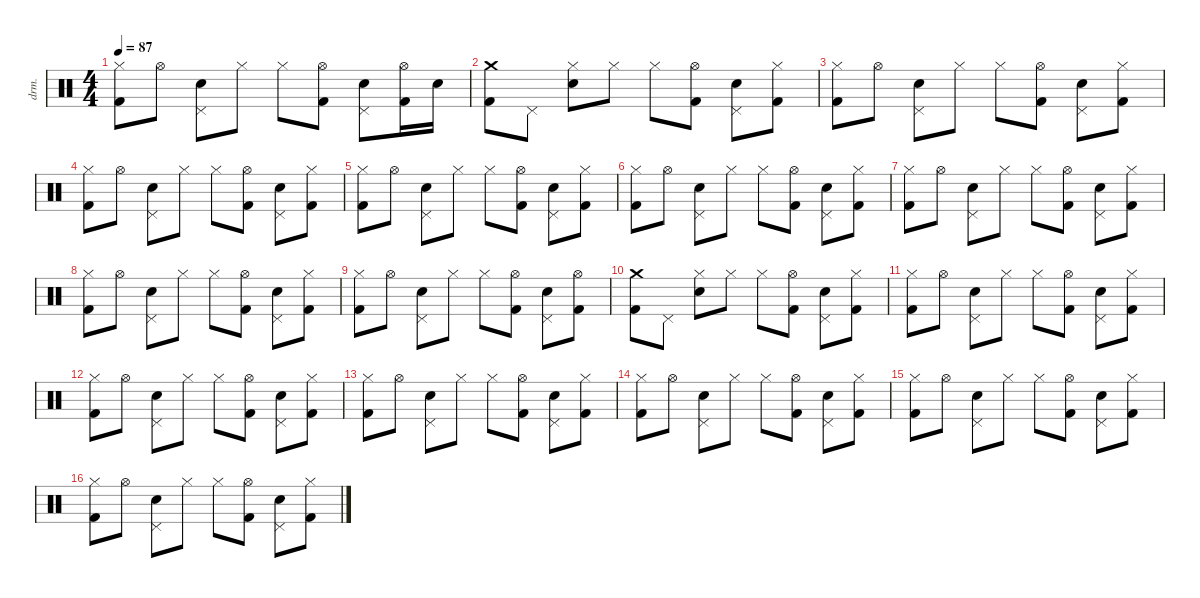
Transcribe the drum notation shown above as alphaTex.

\defaultSystemsLayout 4
\hideDynamics
\bracketExtendMode nobrackets
\otherSystemsTrackNameOrientation horizontal
\track ("Drums" "drm.") {instrument percussion}
\staff {score}
\articulation defaults
\ts (4 4)
\tempo 87
\clef neutral
\ks c
("Hi-Hat (closed)" "Kick (hit) 2").8{dy f} "Hi-Hat (open)".8 ("Pedal Hi-Hat (hit)" "Snare (hit) 2").8 "Hi-Hat (closed)".8 "Hi-Hat (closed)".8 ("Hi-Hat (open)" "Kick (hit) 2").8 ("Pedal Hi-Hat (hit)" "Snare (hit) 2").8 ("Hi-Hat (open)" "Kick (hit) 2").16 "Snare (hit) 2".16 |
("Crash medium (hit)" "Kick (hit) 2").8 "Pedal Hi-Hat (hit)".8 ("Hi-Hat (closed)" "Snare (hit) 2").8 "Hi-Hat (closed)".8 "Hi-Hat (closed)".8 ("Hi-Hat (open)" "Kick (hit) 2").8 ("Pedal Hi-Hat (hit)" "Snare (hit) 2").8 ("Hi-Hat (closed)" "Kick (hit) 2").8 |
("Hi-Hat (closed)" "Kick (hit) 2").8 "Hi-Hat (open)".8 ("Pedal Hi-Hat (hit)" "Snare (hit) 2").8 "Hi-Hat (closed)".8 "Hi-Hat (closed)".8 ("Hi-Hat (open)" "Kick (hit) 2").8 ("Pedal Hi-Hat (hit)" "Snare (hit) 2").8 ("Hi-Hat (closed)" "Kick (hit) 2").8 |
("Hi-Hat (closed)" "Kick (hit) 2").8 "Hi-Hat (open)".8 ("Pedal Hi-Hat (hit)" "Snare (hit) 2").8 "Hi-Hat (closed)".8 "Hi-Hat (closed)".8 ("Hi-Hat (open)" "Kick (hit) 2").8 ("Pedal Hi-Hat (hit)" "Snare (hit) 2").8 ("Hi-Hat (closed)" "Kick (hit) 2").8 |
("Hi-Hat (closed)" "Kick (hit) 2").8 "Hi-Hat (open)".8 ("Pedal Hi-Hat (hit)" "Snare (hit) 2").8 "Hi-Hat (closed)".8 "Hi-Hat (closed)".8 ("Hi-Hat (open)" "Kick (hit) 2").8 ("Pedal Hi-Hat (hit)" "Snare (hit) 2").8 ("Hi-Hat (closed)" "Kick (hit) 2").8 |
("Hi-Hat (closed)" "Kick (hit) 2").8 "Hi-Hat (open)".8 ("Pedal Hi-Hat (hit)" "Snare (hit) 2").8 "Hi-Hat (closed)".8 "Hi-Hat (closed)".8 ("Hi-Hat (open)" "Kick (hit) 2").8 ("Pedal Hi-Hat (hit)" "Snare (hit) 2").8 ("Hi-Hat (closed)" "Kick (hit) 2").8 |
("Hi-Hat (closed)" "Kick (hit) 2").8 "Hi-Hat (open)".8 ("Pedal Hi-Hat (hit)" "Snare (hit) 2").8 "Hi-Hat (closed)".8 "Hi-Hat (closed)".8 ("Hi-Hat (open)" "Kick (hit) 2").8 ("Pedal Hi-Hat (hit)" "Snare (hit) 2").8 ("Hi-Hat (closed)" "Kick (hit) 2").8 |
("Hi-Hat (closed)" "Kick (hit) 2").8 "Hi-Hat (open)".8 ("Pedal Hi-Hat (hit)" "Snare (hit) 2").8 "Hi-Hat (closed)".8 "Hi-Hat (closed)".8 ("Hi-Hat (open)" "Kick (hit) 2").8 ("Pedal Hi-Hat (hit)" "Snare (hit) 2").8 ("Hi-Hat (closed)" "Kick (hit) 2").8 |
("Hi-Hat (closed)" "Kick (hit) 2").8 "Hi-Hat (open)".8 ("Pedal Hi-Hat (hit)" "Snare (hit) 2").8 "Hi-Hat (closed)".8 "Hi-Hat (closed)".8 ("Hi-Hat (open)" "Kick (hit) 2").8 ("Pedal Hi-Hat (hit)" "Snare (hit) 2").8 ("Hi-Hat (open)" "Kick (hit) 2").8 |
("Crash medium (hit)" "Kick (hit) 2").8 "Pedal Hi-Hat (hit)".8 ("Hi-Hat (closed)" "Snare (hit) 2").8 "Hi-Hat (closed)".8 "Hi-Hat (closed)".8 ("Hi-Hat (open)" "Kick (hit) 2").8 ("Pedal Hi-Hat (hit)" "Snare (hit) 2").8 ("Hi-Hat (closed)" "Kick (hit) 2").8 |
("Hi-Hat (closed)" "Kick (hit) 2").8 "Hi-Hat (open)".8 ("Pedal Hi-Hat (hit)" "Snare (hit) 2").8 "Hi-Hat (closed)".8 "Hi-Hat (closed)".8 ("Hi-Hat (open)" "Kick (hit) 2").8 ("Pedal Hi-Hat (hit)" "Snare (hit) 2").8 ("Hi-Hat (closed)" "Kick (hit) 2").8 |
("Hi-Hat (closed)" "Kick (hit) 2").8 "Hi-Hat (open)".8 ("Pedal Hi-Hat (hit)" "Snare (hit) 2").8 "Hi-Hat (closed)".8 "Hi-Hat (closed)".8 ("Hi-Hat (open)" "Kick (hit) 2").8 ("Pedal Hi-Hat (hit)" "Snare (hit) 2").8 ("Hi-Hat (closed)" "Kick (hit) 2").8 |
("Hi-Hat (closed)" "Kick (hit) 2").8 "Hi-Hat (open)".8 ("Pedal Hi-Hat (hit)" "Snare (hit) 2").8 "Hi-Hat (closed)".8 "Hi-Hat (closed)".8 ("Hi-Hat (open)" "Kick (hit) 2").8 ("Pedal Hi-Hat (hit)" "Snare (hit) 2").8 ("Hi-Hat (closed)" "Kick (hit) 2").8 |
("Hi-Hat (closed)" "Kick (hit) 2").8 "Hi-Hat (open)".8 ("Pedal Hi-Hat (hit)" "Snare (hit) 2").8 "Hi-Hat (closed)".8 "Hi-Hat (closed)".8 ("Hi-Hat (open)" "Kick (hit) 2").8 ("Pedal Hi-Hat (hit)" "Snare (hit) 2").8 ("Hi-Hat (closed)" "Kick (hit) 2").8 |
("Hi-Hat (closed)" "Kick (hit) 2").8 "Hi-Hat (open)".8 ("Pedal Hi-Hat (hit)" "Snare (hit) 2").8 "Hi-Hat (closed)".8 "Hi-Hat (closed)".8 ("Hi-Hat (open)" "Kick (hit) 2").8 ("Pedal Hi-Hat (hit)" "Snare (hit) 2").8 ("Hi-Hat (closed)" "Kick (hit) 2").8 |
("Hi-Hat (closed)" "Kick (hit) 2").8 "Hi-Hat (open)".8 ("Pedal Hi-Hat (hit)" "Snare (hit) 2").8 "Hi-Hat (closed)".8 "Hi-Hat (closed)".8 ("Hi-Hat (open)" "Kick (hit) 2").8 ("Pedal Hi-Hat (hit)" "Snare (hit) 2").8 ("Hi-Hat (closed)" "Kick (hit) 2").8
